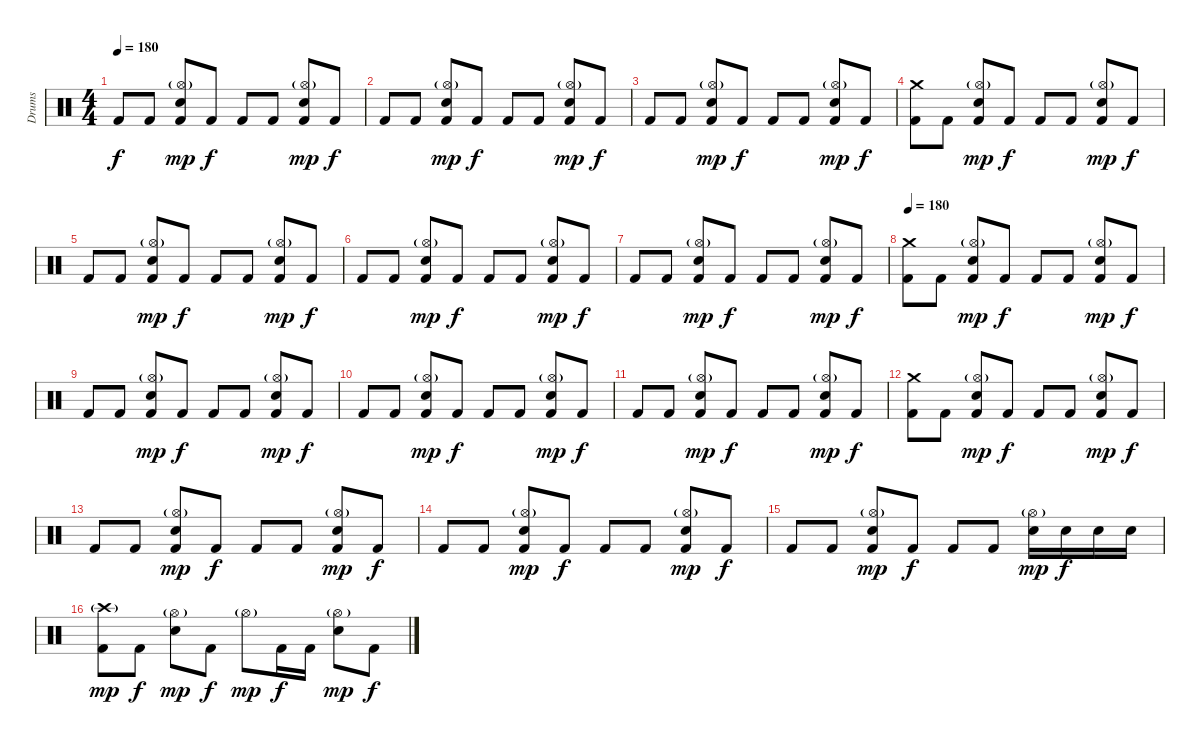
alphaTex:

\track ("Drums" "Drums") {instrument percussion}
\staff {score}
\articulation defaults
\ts (4 4)
\tempo 180
\clef neutral
\ks c "Kick (hit) 2".8{dy f} "Kick (hit) 2".8
("Hi-Hat (open)"{g} "Electric Snare (hit)" "Kick (hit) 2").8{dy mp} "Kick (hit) 2".8{dy f} "Kick (hit) 2".8 "Kick (hit) 2".8 ("Hi-Hat (open)"{g} "Electric Snare (hit)" "Kick (hit) 2").8{dy mp} "Kick (hit) 2".8{dy f} |
"Kick (hit) 2".8 "Kick (hit) 2".8 ("Hi-Hat (open)"{g} "Electric Snare (hit)" "Kick (hit) 2").8{dy mp} "Kick (hit) 2".8{dy f} "Kick (hit) 2".8 "Kick (hit) 2".8 ("Hi-Hat (open)"{g} "Electric Snare (hit)" "Kick (hit) 2").8{dy mp} "Kick (hit) 2".8{dy f} |
"Kick (hit) 2".8 "Kick (hit) 2".8 ("Hi-Hat (open)"{g} "Electric Snare (hit)" "Kick (hit) 2").8{dy mp} "Kick (hit) 2".8{dy f} "Kick (hit) 2".8 "Kick (hit) 2".8 ("Hi-Hat (open)"{g} "Electric Snare (hit)" "Kick (hit) 2").8{dy mp} "Kick (hit) 2".8{dy f} |
("Crash medium (hit)" "Kick (hit) 2").8 "Kick (hit) 2".8 ("Hi-Hat (open)"{g} "Electric Snare (hit)" "Kick (hit) 2").8{dy mp} "Kick (hit) 2".8{dy f} "Kick (hit) 2".8 "Kick (hit) 2".8 ("Hi-Hat (open)"{g} "Electric Snare (hit)" "Kick (hit) 2").8{dy mp} "Kick (hit) 2".8{dy f} |
"Kick (hit) 2".8 "Kick (hit) 2".8 ("Hi-Hat (open)"{g} "Electric Snare (hit)" "Kick (hit) 2").8{dy mp} "Kick (hit) 2".8{dy f} "Kick (hit) 2".8 "Kick (hit) 2".8 ("Hi-Hat (open)"{g} "Electric Snare (hit)" "Kick (hit) 2").8{dy mp} "Kick (hit) 2".8{dy f} |
"Kick (hit) 2".8 "Kick (hit) 2".8 ("Hi-Hat (open)"{g} "Electric Snare (hit)" "Kick (hit) 2").8{dy mp} "Kick (hit) 2".8{dy f} "Kick (hit) 2".8 "Kick (hit) 2".8 ("Hi-Hat (open)"{g} "Electric Snare (hit)" "Kick (hit) 2").8{dy mp} "Kick (hit) 2".8{dy f} |
"Kick (hit) 2".8 "Kick (hit) 2".8 ("Hi-Hat (open)"{g} "Electric Snare (hit)" "Kick (hit) 2").8{dy mp} "Kick (hit) 2".8{dy f} "Kick (hit) 2".8 "Kick (hit) 2".8 ("Hi-Hat (open)"{g} "Electric Snare (hit)" "Kick (hit) 2").8{dy mp} "Kick (hit) 2".8{dy f} |
\tempo 180
("Crash medium (hit)" "Kick (hit) 2").8 "Kick (hit) 2".8 ("Hi-Hat (open)"{g} "Electric Snare (hit)" "Kick (hit) 2").8{dy mp} "Kick (hit) 2".8{dy f} "Kick (hit) 2".8 "Kick (hit) 2".8 ("Hi-Hat (open)"{g} "Electric Snare (hit)" "Kick (hit) 2").8{dy mp} "Kick (hit) 2".8{dy f} |
"Kick (hit) 2".8 "Kick (hit) 2".8 ("Hi-Hat (open)"{g} "Electric Snare (hit)" "Kick (hit) 2").8{dy mp} "Kick (hit) 2".8{dy f} "Kick (hit) 2".8 "Kick (hit) 2".8 ("Hi-Hat (open)"{g} "Electric Snare (hit)" "Kick (hit) 2").8{dy mp} "Kick (hit) 2".8{dy f} |
"Kick (hit) 2".8 "Kick (hit) 2".8 ("Hi-Hat (open)"{g} "Electric Snare (hit)" "Kick (hit) 2").8{dy mp} "Kick (hit) 2".8{dy f} "Kick (hit) 2".8 "Kick (hit) 2".8 ("Hi-Hat (open)"{g} "Electric Snare (hit)" "Kick (hit) 2").8{dy mp} "Kick (hit) 2".8{dy f} |
"Kick (hit) 2".8 "Kick (hit) 2".8 ("Hi-Hat (open)"{g} "Electric Snare (hit)" "Kick (hit) 2").8{dy mp} "Kick (hit) 2".8{dy f} "Kick (hit) 2".8 "Kick (hit) 2".8 ("Hi-Hat (open)"{g} "Electric Snare (hit)" "Kick (hit) 2").8{dy mp} "Kick (hit) 2".8{dy f} |
("Crash medium (hit)" "Kick (hit) 2").8 "Kick (hit) 2".8 ("Hi-Hat (open)"{g} "Electric Snare (hit)" "Kick (hit) 2").8{dy mp} "Kick (hit) 2".8{dy f} "Kick (hit) 2".8 "Kick (hit) 2".8 ("Hi-Hat (open)"{g} "Electric Snare (hit)" "Kick (hit) 2").8{dy mp} "Kick (hit) 2".8{dy f} |
"Kick (hit) 2".8 "Kick (hit) 2".8 ("Hi-Hat (open)"{g} "Electric Snare (hit)" "Kick (hit) 2").8{dy mp} "Kick (hit) 2".8{dy f} "Kick (hit) 2".8 "Kick (hit) 2".8 ("Hi-Hat (open)"{g} "Electric Snare (hit)" "Kick (hit) 2").8{dy mp} "Kick (hit) 2".8{dy f} |
"Kick (hit) 2".8 "Kick (hit) 2".8 ("Hi-Hat (open)"{g} "Electric Snare (hit)" "Kick (hit) 2").8{dy mp} "Kick (hit) 2".8{dy f} "Kick (hit) 2".8 "Kick (hit) 2".8 ("Hi-Hat (open)"{g} "Electric Snare (hit)" "Kick (hit) 2").8{dy mp} "Kick (hit) 2".8{dy f} |
"Kick (hit) 2".8 "Kick (hit) 2".8 ("Hi-Hat (open)"{g} "Electric Snare (hit)" "Kick (hit) 2").8{dy mp} "Kick (hit) 2".8{dy f} "Kick (hit) 2".8 "Kick (hit) 2".8 ("Hi-Hat (open)"{g} "Electric Snare (hit)").16{dy mp} "Electric Snare (hit)".16{dy f} "Electric Snare (hit)".16 "Electric Snare (hit)".16 |
("Crash high (hit)"{g} "Kick (hit) 2").8{dy mp} "Kick (hit) 2".8{dy f} ("Hi-Hat (open)"{g} "Electric Snare (hit)").8{dy mp} "Kick (hit) 2".8{dy f} "Hi-Hat (open)"{g}.8{dy mp} "Kick (hit) 2".16{dy f} "Kick (hit) 2".16 ("Hi-Hat (open)"{g} "Electric Snare (hit)").8{dy mp} "Kick (hit) 2".8{dy f}
